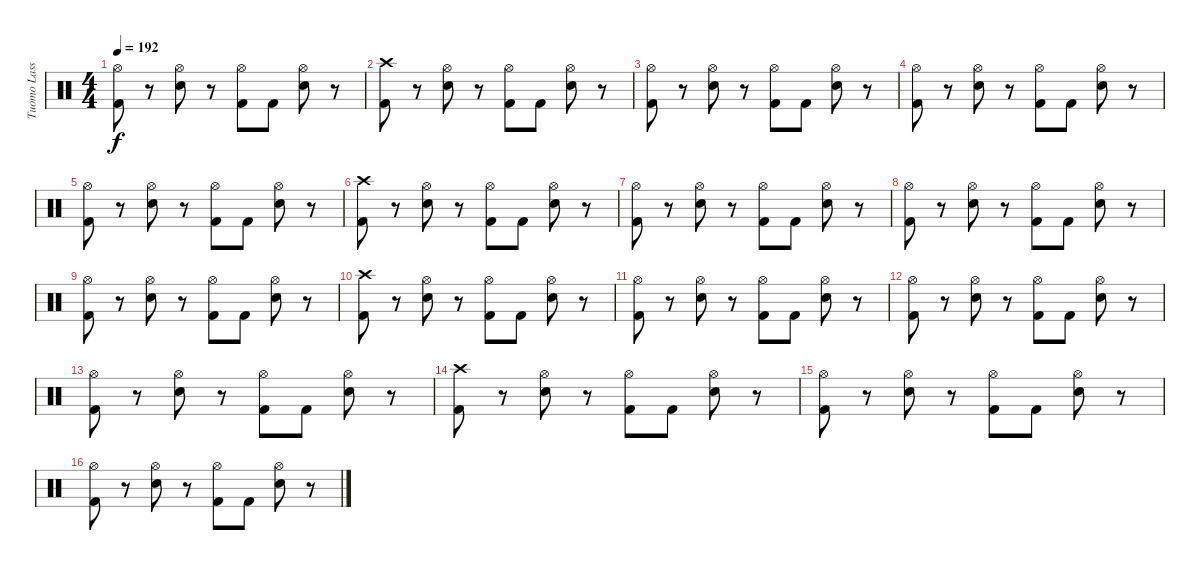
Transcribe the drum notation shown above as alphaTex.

\track ("Tuomo Lassilla" "Tuomo Lass") {instrument percussion}
\staff {score}
\articulation defaults
\ts (4 4)
\tempo 192
\clef neutral
\ks c
("Hi-Hat (open)" "Kick (hit) 2").8{dy f} r.8 ("Hi-Hat (open)" "Electric Snare (hit)").8 r.8 ("Hi-Hat (open)" "Kick (hit) 2").8 "Kick (hit) 2".8 ("Hi-Hat (open)" "Electric Snare (hit)").8 r.8 |
("Crash high (hit)" "Kick (hit) 2").8 r.8 ("Hi-Hat (open)" "Electric Snare (hit)").8 r.8 ("Hi-Hat (open)" "Kick (hit) 2").8 "Kick (hit) 2".8 ("Hi-Hat (open)" "Electric Snare (hit)").8 r.8 |
("Hi-Hat (open)" "Kick (hit) 2").8 r.8 ("Hi-Hat (open)" "Electric Snare (hit)").8 r.8 ("Hi-Hat (open)" "Kick (hit) 2").8 "Kick (hit) 2".8 ("Hi-Hat (open)" "Electric Snare (hit)").8 r.8 |
("Hi-Hat (open)" "Kick (hit) 2").8 r.8 ("Hi-Hat (open)" "Electric Snare (hit)").8 r.8 ("Hi-Hat (open)" "Kick (hit) 2").8 "Kick (hit) 2".8 ("Hi-Hat (open)" "Electric Snare (hit)").8 r.8 |
("Hi-Hat (open)" "Kick (hit) 2").8 r.8 ("Hi-Hat (open)" "Electric Snare (hit)").8 r.8 ("Hi-Hat (open)" "Kick (hit) 2").8 "Kick (hit) 2".8 ("Hi-Hat (open)" "Electric Snare (hit)").8 r.8 |
("Crash high (hit)" "Kick (hit) 2").8 r.8 ("Hi-Hat (open)" "Electric Snare (hit)").8 r.8 ("Hi-Hat (open)" "Kick (hit) 2").8 "Kick (hit) 2".8 ("Hi-Hat (open)" "Electric Snare (hit)").8 r.8 |
("Hi-Hat (open)" "Kick (hit) 2").8 r.8 ("Hi-Hat (open)" "Electric Snare (hit)").8 r.8 ("Hi-Hat (open)" "Kick (hit) 2").8 "Kick (hit) 2".8 ("Hi-Hat (open)" "Electric Snare (hit)").8 r.8 |
("Hi-Hat (open)" "Kick (hit) 2").8 r.8 ("Hi-Hat (open)" "Electric Snare (hit)").8 r.8 ("Hi-Hat (open)" "Kick (hit) 2").8 "Kick (hit) 2".8 ("Hi-Hat (open)" "Electric Snare (hit)").8 r.8 |
("Hi-Hat (open)" "Kick (hit) 2").8 r.8 ("Hi-Hat (open)" "Electric Snare (hit)").8 r.8 ("Hi-Hat (open)" "Kick (hit) 2").8 "Kick (hit) 2".8 ("Hi-Hat (open)" "Electric Snare (hit)").8 r.8 |
("Crash high (hit)" "Kick (hit) 2").8{volume 16} r.8 ("Hi-Hat (open)" "Electric Snare (hit)").8{volume 16} r.8 ("Hi-Hat (open)" "Kick (hit) 2").8{volume 15} "Kick (hit) 2".8{volume 15} ("Hi-Hat (open)" "Electric Snare (hit)").8{volume 15} r.8 |
("Hi-Hat (open)" "Kick (hit) 2").8{volume 15} r.8 ("Hi-Hat (open)" "Electric Snare (hit)").8{volume 15} r.8 ("Hi-Hat (open)" "Kick (hit) 2").8{volume 14} "Kick (hit) 2".8{volume 14} ("Hi-Hat (open)" "Electric Snare (hit)").8{volume 14} r.8 |
("Hi-Hat (open)" "Kick (hit) 2").8{volume 14} r.8 ("Hi-Hat (open)" "Electric Snare (hit)").8{volume 14} r.8 ("Hi-Hat (open)" "Kick (hit) 2").8{volume 13} "Kick (hit) 2".8{volume 13} ("Hi-Hat (open)" "Electric Snare (hit)").8{volume 13} r.8 |
("Hi-Hat (open)" "Kick (hit) 2").8{volume 13} r.8 ("Hi-Hat (open)" "Electric Snare (hit)").8{volume 13} r.8 ("Hi-Hat (open)" "Kick (hit) 2").8{volume 12} "Kick (hit) 2".8{volume 12} ("Hi-Hat (open)" "Electric Snare (hit)").8{volume 12} r.8 |
("Crash high (hit)" "Kick (hit) 2").8{volume 12} r.8 ("Hi-Hat (open)" "Electric Snare (hit)").8{volume 12} r.8 ("Hi-Hat (open)" "Kick (hit) 2").8{volume 11} "Kick (hit) 2".8{volume 11} ("Hi-Hat (open)" "Electric Snare (hit)").8{volume 11} r.8 |
("Hi-Hat (open)" "Kick (hit) 2").8{volume 11} r.8 ("Hi-Hat (open)" "Electric Snare (hit)").8{volume 11} r.8 ("Hi-Hat (open)" "Kick (hit) 2").8{volume 10} "Kick (hit) 2".8{volume 10} ("Hi-Hat (open)" "Electric Snare (hit)").8{volume 10} r.8 |
("Hi-Hat (open)" "Kick (hit) 2").8{volume 10} r.8 ("Hi-Hat (open)" "Electric Snare (hit)").8{volume 10} r.8 ("Hi-Hat (open)" "Kick (hit) 2").8{volume 9} "Kick (hit) 2".8{volume 9} ("Hi-Hat (open)" "Electric Snare (hit)").8{volume 9} r.8
